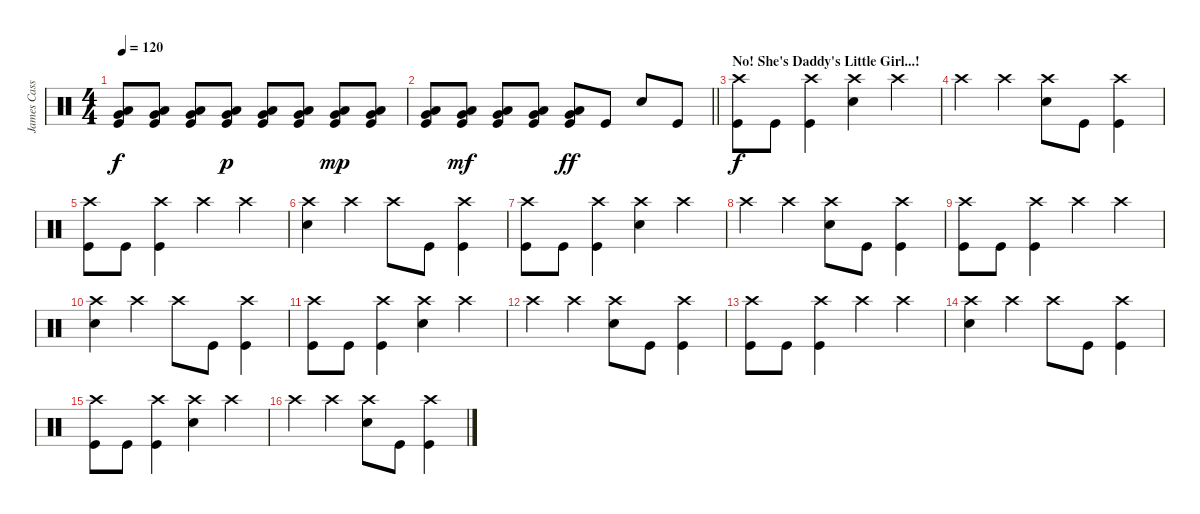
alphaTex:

\track ("James Cassells" "James Cass") {instrument percussion}
\staff {score}
\articulation defaults
\ts (4 4)
\tempo 120
\clef neutral
\ks c
("Very Low Tom (hit)" "Low Floor Tom (hit)" "Kick (hit)").8{dy f} ("Very Low Tom (hit)" "Low Floor Tom (hit)" "Kick (hit)").8 ("Very Low Tom (hit)" "Low Floor Tom (hit)" "Kick (hit)").8 ("Very Low Tom (hit)" "Low Floor Tom (hit)" "Kick (hit)").8{dy p} ("Very Low Tom (hit)" "Low Floor Tom (hit)" "Kick (hit)").8 ("Very Low Tom (hit)" "Low Floor Tom (hit)" "Kick (hit)").8 ("Very Low Tom (hit)" "Low Floor Tom (hit)" "Kick (hit)").8{dy mp} ("Very Low Tom (hit)" "Low Floor Tom (hit)" "Kick (hit)").8 |
\barLineRight lightlight
("Very Low Tom (hit)" "Low Floor Tom (hit)" "Kick (hit)").8 ("Very Low Tom (hit)" "Low Floor Tom (hit)" "Kick (hit)").8{dy mf} ("Very Low Tom (hit)" "Low Floor Tom (hit)" "Kick (hit)").8 ("Very Low Tom (hit)" "Low Floor Tom (hit)" "Kick (hit)").8 ("Very Low Tom (hit)" "Low Floor Tom (hit)" "Kick (hit)").8{dy ff} "Kick (hit)".8 "Snare (hit) 2".8 "Kick (hit)".8 |
\section ("" "No! She's Daddy's Little Girl...!")
("Crash high (hit)" "Kick (hit)").8{dy f} "Kick (hit)".8 ("Crash high (hit)" "Kick (hit)").4 ("Crash high (hit)" "Snare (hit) 2").4 "Crash high (hit)".4 |
"Crash high (hit)".4 "Crash high (hit)".4 ("Crash high (hit)" "Snare (hit) 2").8 "Kick (hit)".8 ("Crash high (hit)" "Kick (hit)").4 |
("Crash high (hit)" "Kick (hit)").8 "Kick (hit)".8 ("Crash high (hit)" "Kick (hit)").4 "Crash high (hit)".4 "Crash high (hit)".4 |
("Crash high (hit)" "Snare (hit) 2").4 "Crash high (hit)".4 "Crash high (hit)".8 "Kick (hit)".8 ("Crash high (hit)" "Kick (hit)").4 |
("Crash high (hit)" "Kick (hit)").8 "Kick (hit)".8 ("Crash high (hit)" "Kick (hit)").4 ("Crash high (hit)" "Snare (hit) 2").4 "Crash high (hit)".4 |
"Crash high (hit)".4 "Crash high (hit)".4 ("Crash high (hit)" "Snare (hit) 2").8 "Kick (hit)".8 ("Crash high (hit)" "Kick (hit)").4 |
("Crash high (hit)" "Kick (hit)").8 "Kick (hit)".8 ("Crash high (hit)" "Kick (hit)").4 "Crash high (hit)".4 "Crash high (hit)".4 |
("Crash high (hit)" "Snare (hit) 2").4 "Crash high (hit)".4 "Crash high (hit)".8 "Kick (hit)".8 ("Crash high (hit)" "Kick (hit)").4 |
("Crash high (hit)" "Kick (hit)").8 "Kick (hit)".8 ("Crash high (hit)" "Kick (hit)").4 ("Crash high (hit)" "Snare (hit) 2").4 "Crash high (hit)".4 |
"Crash high (hit)".4 "Crash high (hit)".4 ("Crash high (hit)" "Snare (hit) 2").8 "Kick (hit)".8 ("Crash high (hit)" "Kick (hit)").4 |
("Crash high (hit)" "Kick (hit)").8 "Kick (hit)".8 ("Crash high (hit)" "Kick (hit)").4 "Crash high (hit)".4 "Crash high (hit)".4 |
("Crash high (hit)" "Snare (hit) 2").4 "Crash high (hit)".4 "Crash high (hit)".8 "Kick (hit)".8 ("Crash high (hit)" "Kick (hit)").4 |
("Crash high (hit)" "Kick (hit)").8 "Kick (hit)".8 ("Crash high (hit)" "Kick (hit)").4 ("Crash high (hit)" "Snare (hit) 2").4 "Crash high (hit)".4 |
"Crash high (hit)".4 "Crash high (hit)".4 ("Crash high (hit)" "Snare (hit) 2").8 "Kick (hit)".8 ("Crash high (hit)" "Kick (hit)").4
